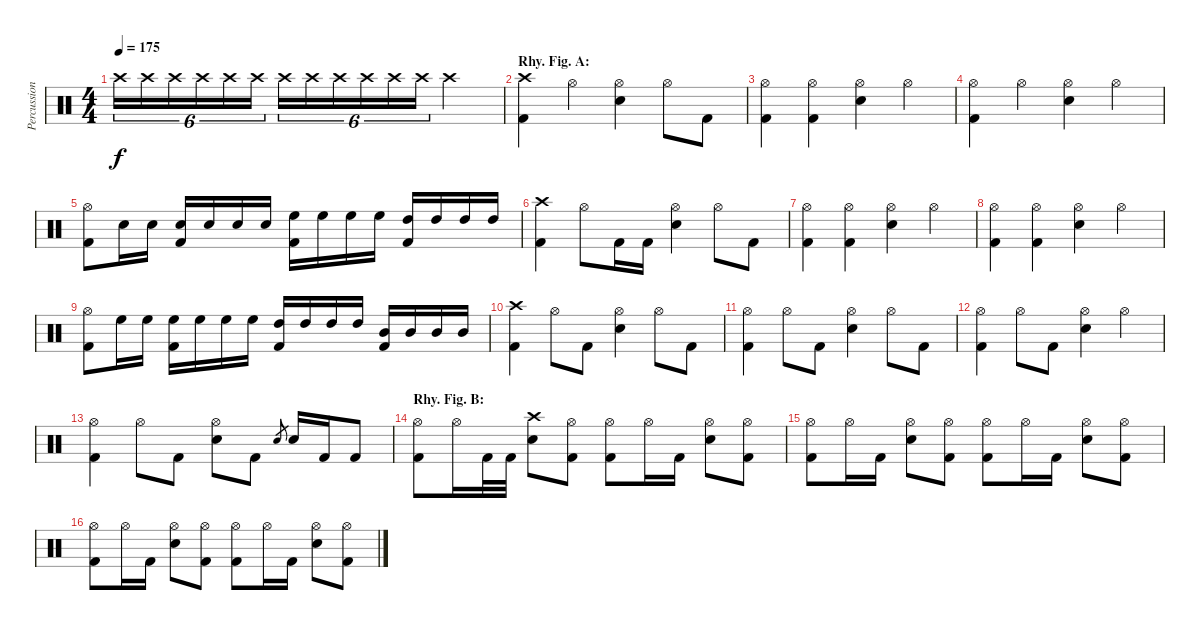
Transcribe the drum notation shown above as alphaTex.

\track ("Percussion" "Percussion") {instrument percussion}
\staff {score}
\articulation defaults
\ts (4 4)
\tempo 175
\clef neutral
\ks c "Crash high (hit)".16{tu (6 4) dy f} "Crash high (hit)".16{tu (6 4)} "Crash high (hit)".16{tu (6 4)} "Crash high (hit)".16{tu (6 4)} "Crash high (hit)".16{tu (6 4)} "Crash high (hit)".16{tu (6 4)} "Crash high (hit)".16{tu (6 4)} "Crash high (hit)".16{tu (6 4)} "Crash high (hit)".16{tu (6 4)} "Crash high (hit)".16{tu (6 4)} "Crash high (hit)".16{tu (6 4)} "Crash high (hit)".16{tu (6 4)} "Crash high (hit)".2
|
\section ("" "Rhy. Fig. A:")
("Crash high (hit)" "Kick (hit) 2").4 "Hi-Hat (open)".4 ("Hi-Hat (open)" "Electric Snare (hit)").4 "Hi-Hat (open)".8 "Kick (hit) 2".8 |
("Hi-Hat (open)" "Kick (hit) 2").4 ("Hi-Hat (open)" "Kick (hit) 2").4 ("Hi-Hat (open)" "Electric Snare (hit)").4 "Hi-Hat (open)".4 |
("Hi-Hat (open)" "Kick (hit) 2").4 "Hi-Hat (open)".4 ("Hi-Hat (open)" "Electric Snare (hit)").4 "Hi-Hat (open)".4 |
("Hi-Hat (open)" "Kick (hit) 2").8 "Electric Snare (hit)".16 "Electric Snare (hit)".16 ("Electric Snare (hit)" "Kick (hit) 2").16 "Electric Snare (hit)".16 "Electric Snare (hit)".16 "Electric Snare (hit)".16 ("High Floor Tom (hit)" "Kick (hit) 2").16 "High Floor Tom (hit)".16 "High Floor Tom (hit)".16 "High Floor Tom (hit)".16 ("High Tom (hit)" "Kick (hit) 2").16 "High Tom (hit)".16 "High Tom (hit)".16 "High Tom (hit)".16 |
("Crash high (hit)" "Kick (hit) 2").4 "Hi-Hat (open)".8 "Kick (hit) 2".16 "Kick (hit) 2".16 ("Hi-Hat (open)" "Electric Snare (hit)").4 "Hi-Hat (open)".8 "Kick (hit) 2".8 |
("Hi-Hat (open)" "Kick (hit) 2").4 ("Hi-Hat (open)" "Kick (hit) 2").4 ("Hi-Hat (open)" "Electric Snare (hit)").4 "Hi-Hat (open)".4 |
("Hi-Hat (open)" "Kick (hit) 2").4 ("Hi-Hat (open)" "Kick (hit) 2").4 ("Hi-Hat (open)" "Electric Snare (hit)").4 "Hi-Hat (open)".4 |
("Hi-Hat (open)" "Kick (hit) 2").8 "High Floor Tom (hit)".16 "High Floor Tom (hit)".16 ("High Floor Tom (hit)" "Kick (hit) 2").16 "High Floor Tom (hit)".16 "High Floor Tom (hit)".16 "High Floor Tom (hit)".16 ("High Tom (hit)" "Kick (hit) 2").16 "High Tom (hit)".16 "High Tom (hit)".16 "High Tom (hit)".16 ("Mid Tom (hit)" "Kick (hit) 2").16 "Mid Tom (hit)".16 "Mid Tom (hit)".16 "Mid Tom (hit)".16 |
("Crash high (hit)" "Kick (hit) 2").4 "Hi-Hat (open)".8 "Kick (hit) 2".8 ("Hi-Hat (open)" "Electric Snare (hit)").4 "Hi-Hat (open)".8 "Kick (hit) 2".8 |
("Hi-Hat (open)" "Kick (hit) 2").4 "Hi-Hat (open)".8 "Kick (hit) 2".8 ("Hi-Hat (open)" "Electric Snare (hit)").4 "Hi-Hat (open)".8 "Kick (hit) 2".8 |
("Hi-Hat (open)" "Kick (hit) 2").4 "Hi-Hat (open)".8 "Kick (hit) 2".8 ("Hi-Hat (open)" "Electric Snare (hit)").4 "Hi-Hat (open)".4 |
("Hi-Hat (open)" "Kick (hit) 2").4 "Hi-Hat (open)".8 "Kick (hit) 2".8 ("Hi-Hat (open)" "Electric Snare (hit)").8 "Kick (hit) 2".8 "Electric Snare (hit)".8{gr} "Electric Snare (hit)".16 "Kick (hit) 2".16 "Kick (hit) 2".8 |
\section ("" "Rhy. Fig. B:")
("Hi-Hat (open)" "Kick (hit) 2").8 "Hi-Hat (open)".16 "Kick (hit) 2".32 "Kick (hit) 2".32 ("Crash high (hit)" "Electric Snare (hit)").8 ("Hi-Hat (open)" "Kick (hit) 2").8 ("Hi-Hat (open)" "Kick (hit) 2").8 "Hi-Hat (open)".16 "Kick (hit) 2".16 ("Hi-Hat (open)" "Electric Snare (hit)").8 ("Hi-Hat (open)" "Kick (hit) 2").8 |
("Hi-Hat (open)" "Kick (hit) 2").8 "Hi-Hat (open)".16 "Kick (hit) 2".16 ("Hi-Hat (open)" "Electric Snare (hit)").8 ("Hi-Hat (open)" "Kick (hit) 2").8 ("Hi-Hat (open)" "Kick (hit) 2").8 "Hi-Hat (open)".16 "Kick (hit) 2".16 ("Hi-Hat (open)" "Electric Snare (hit)").8 ("Hi-Hat (open)" "Kick (hit) 2").8 |
("Hi-Hat (open)" "Kick (hit) 2").8 "Hi-Hat (open)".16 "Kick (hit) 2".16 ("Hi-Hat (open)" "Electric Snare (hit)").8 ("Hi-Hat (open)" "Kick (hit) 2").8 ("Hi-Hat (open)" "Kick (hit) 2").8 "Hi-Hat (open)".16 "Kick (hit) 2".16 ("Hi-Hat (open)" "Electric Snare (hit)").8 ("Hi-Hat (open)" "Kick (hit) 2").8
